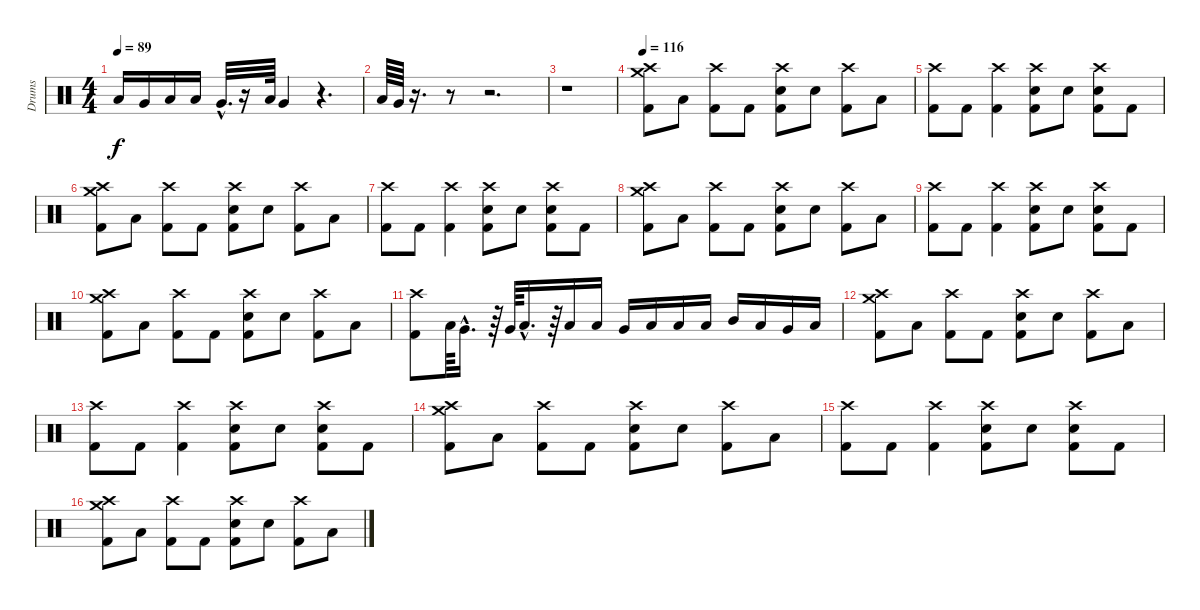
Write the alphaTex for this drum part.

\track ("Drums" "Drums") {instrument percussion}
\staff {score}
\articulation defaults
\ts (4 4)
\tempo 89
\clef neutral
\ks c "Low Floor Tom (hit)".16{dy f} "Very Low Tom (hit)".16 "Low Floor Tom (hit)".16 "Low Tom (hit)".16 "Very Low Tom (hit)"{hac}.32{d}
r.16 "Low Floor Tom (hit)".64 "Very Low Tom (hit)".4 r.4{d} |
"Low Floor Tom (hit)".64 "Very Low Tom (hit)".64 r.16{d} r.8 r.2{d} |
r.1 |
\tempo 116
("Crash medium (hit)" "Crash high (hit)" "Kick (hit) 2").8{volume 16} "Low Floor Tom (hit)".8 ("Crash high (hit)" "Kick (hit) 2").8 "Kick (hit) 2".8 ("Crash high (hit)" "Electric Snare (hit)" "Kick (hit) 2").8 "Electric Snare (hit)".8 ("Crash high (hit)" "Kick (hit) 2").8 "Low Floor Tom (hit)".8 |
("Crash high (hit)" "Kick (hit) 2").8 "Kick (hit) 2".8 ("Crash high (hit)" "Kick (hit) 2").4 ("Crash high (hit)" "Electric Snare (hit)" "Kick (hit) 2").8 "Electric Snare (hit)".8 ("Crash high (hit)" "Electric Snare (hit)" "Kick (hit) 2").8 "Kick (hit) 2".8 |
("Crash medium (hit)" "Crash high (hit)" "Kick (hit) 2").8 "Low Floor Tom (hit)".8 ("Crash high (hit)" "Kick (hit) 2").8 "Kick (hit) 2".8 ("Crash high (hit)" "Electric Snare (hit)" "Kick (hit) 2").8 "Electric Snare (hit)".8 ("Crash high (hit)" "Kick (hit) 2").8 "Low Floor Tom (hit)".8 |
("Crash high (hit)" "Kick (hit) 2").8 "Kick (hit) 2".8 ("Crash high (hit)" "Kick (hit) 2").4 ("Crash high (hit)" "Electric Snare (hit)" "Kick (hit) 2").8 "Electric Snare (hit)".8 ("Crash high (hit)" "Electric Snare (hit)" "Kick (hit) 2").8 "Kick (hit) 2".8 |
("Crash medium (hit)" "Crash high (hit)" "Kick (hit) 2").8 "Low Floor Tom (hit)".8 ("Crash high (hit)" "Kick (hit) 2").8 "Kick (hit) 2".8 ("Crash high (hit)" "Electric Snare (hit)" "Kick (hit) 2").8 "Electric Snare (hit)".8 ("Crash high (hit)" "Kick (hit) 2").8 "Low Floor Tom (hit)".8 |
("Crash high (hit)" "Kick (hit) 2").8 "Kick (hit) 2".8 ("Crash high (hit)" "Kick (hit) 2").4 ("Crash high (hit)" "Electric Snare (hit)" "Kick (hit) 2").8 "Electric Snare (hit)".8 ("Crash high (hit)" "Electric Snare (hit)" "Kick (hit) 2").8 "Kick (hit) 2".8 |
("Crash medium (hit)" "Crash high (hit)" "Kick (hit) 2").8 "Low Floor Tom (hit)".8 ("Crash high (hit)" "Kick (hit) 2").8 "Kick (hit) 2".8 ("Crash high (hit)" "Electric Snare (hit)" "Kick (hit) 2").8 "Electric Snare (hit)".8 ("Crash high (hit)" "Kick (hit) 2").8 "Low Floor Tom (hit)".8 |
("Crash high (hit)" "Kick (hit) 2").8 "Low Tom (hit)".64 "Very Low Tom (hit)"{hac}.16{d} r.64 "Very Low Tom (hit)".64 "Low Floor Tom (hit)"{hac}.16{d} r.64 "Low Floor Tom (hit)".16 "Low Floor Tom (hit)".16 "Very Low Tom (hit)".16 "Low Floor Tom (hit)".16 "Low Floor Tom (hit)".16 "Low Floor Tom (hit)".16 "Mid Tom (hit)".16 "Low Tom (hit)".16 "Very Low Tom (hit)".16 "Low Floor Tom (hit)".16 |
("Crash medium (hit)" "Crash high (hit)" "Kick (hit) 2").8 "Low Floor Tom (hit)".8 ("Crash high (hit)" "Kick (hit) 2").8 "Kick (hit) 2".8 ("Crash high (hit)" "Electric Snare (hit)" "Kick (hit) 2").8 "Electric Snare (hit)".8 ("Crash high (hit)" "Kick (hit) 2").8 "Low Floor Tom (hit)".8 |
("Crash high (hit)" "Kick (hit) 2").8 "Kick (hit) 2".8 ("Crash high (hit)" "Kick (hit) 2").4 ("Crash high (hit)" "Electric Snare (hit)" "Kick (hit) 2").8 "Electric Snare (hit)".8 ("Crash high (hit)" "Electric Snare (hit)" "Kick (hit) 2").8 "Kick (hit) 2".8 |
("Crash medium (hit)" "Crash high (hit)" "Kick (hit) 2").8 "Low Floor Tom (hit)".8 ("Crash high (hit)" "Kick (hit) 2").8 "Kick (hit) 2".8 ("Crash high (hit)" "Electric Snare (hit)" "Kick (hit) 2").8 "Electric Snare (hit)".8 ("Crash high (hit)" "Kick (hit) 2").8 "Low Floor Tom (hit)".8 |
("Crash high (hit)" "Kick (hit) 2").8 "Kick (hit) 2".8 ("Crash high (hit)" "Kick (hit) 2").4 ("Crash high (hit)" "Electric Snare (hit)" "Kick (hit) 2").8 "Electric Snare (hit)".8 ("Crash high (hit)" "Electric Snare (hit)" "Kick (hit) 2").8 "Kick (hit) 2".8 |
("Crash medium (hit)" "Crash high (hit)" "Kick (hit) 2").8 "Low Floor Tom (hit)".8 ("Crash high (hit)" "Kick (hit) 2").8 "Kick (hit) 2".8 ("Crash high (hit)" "Electric Snare (hit)" "Kick (hit) 2").8 "Electric Snare (hit)".8 ("Crash high (hit)" "Kick (hit) 2").8 "Low Floor Tom (hit)".8
